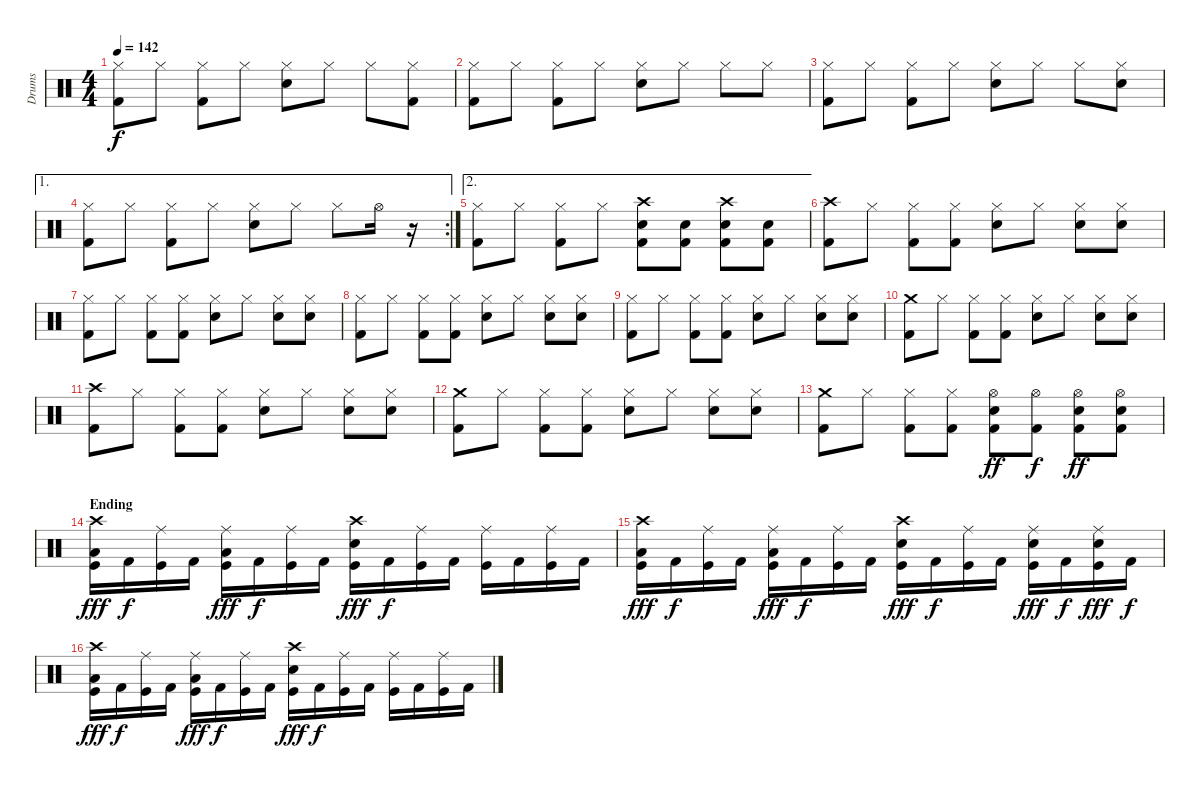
\track ("Drums" "Drums") {instrument percussion}
\staff {score}
\articulation defaults
\ts (4 4)
\tempo 142
\clef neutral
\ks c
("Hi-Hat (closed)" "Kick (hit) 2").8{dy f} "Hi-Hat (closed)".8 ("Hi-Hat (closed)" "Kick (hit) 2").8 "Hi-Hat (closed)".8 ("Hi-Hat (closed)" "Electric Snare (hit)").8 "Hi-Hat (closed)".8 "Hi-Hat (closed)".8 ("Hi-Hat (closed)" "Kick (hit) 2").8 |
("Hi-Hat (closed)" "Kick (hit) 2").8 "Hi-Hat (closed)".8 ("Hi-Hat (closed)" "Kick (hit) 2").8 "Hi-Hat (closed)".8 ("Hi-Hat (closed)" "Electric Snare (hit)").8 "Hi-Hat (closed)".8 "Hi-Hat (closed)".8 "Hi-Hat (closed)".8 |
("Hi-Hat (closed)" "Kick (hit) 2").8 "Hi-Hat (closed)".8 ("Hi-Hat (closed)" "Kick (hit) 2").8 "Hi-Hat (closed)".8 ("Hi-Hat (closed)" "Electric Snare (hit)").8 "Hi-Hat (closed)".8 "Hi-Hat (closed)".8 ("Hi-Hat (closed)" "Electric Snare (hit)").8 |
\ae 1
\rc 2
("Hi-Hat (closed)" "Kick (hit) 2").8 "Hi-Hat (closed)".8 ("Hi-Hat (closed)" "Kick (hit) 2").8 "Hi-Hat (closed)".8 ("Hi-Hat (closed)" "Electric Snare (hit)").8 "Hi-Hat (closed)".8 "Hi-Hat (closed)".8 "Hi-Hat (open)".16 r.16 |
\ae 2
("Hi-Hat (closed)" "Kick (hit) 2").8 "Hi-Hat (closed)".8 ("Hi-Hat (closed)" "Kick (hit) 2").8 "Hi-Hat (closed)".8 ("Crash high (hit)" "Electric Snare (hit)" "Kick (hit) 2").8 ("Electric Snare (hit)" "Kick (hit) 2").8 ("Crash high (hit)" "Electric Snare (hit)" "Kick (hit) 2").8 ("Electric Snare (hit)" "Kick (hit) 2").8 |
("Crash high (hit)" "Kick (hit) 2").8 "Hi-Hat (closed)".8 ("Hi-Hat (closed)" "Kick (hit) 2").8 ("Hi-Hat (closed)" "Kick (hit) 2").8 ("Hi-Hat (closed)" "Electric Snare (hit)").8 "Hi-Hat (closed)".8 ("Hi-Hat (closed)" "Electric Snare (hit)").8 ("Hi-Hat (closed)" "Electric Snare (hit)").8 |
("Hi-Hat (closed)" "Kick (hit) 2").8 "Hi-Hat (closed)".8 ("Hi-Hat (closed)" "Kick (hit) 2").8 ("Hi-Hat (closed)" "Kick (hit) 2").8 ("Hi-Hat (closed)" "Electric Snare (hit)").8 "Hi-Hat (closed)".8 ("Hi-Hat (closed)" "Electric Snare (hit)").8 ("Hi-Hat (closed)" "Electric Snare (hit)").8 |
("Hi-Hat (closed)" "Kick (hit) 2").8 "Hi-Hat (closed)".8 ("Hi-Hat (closed)" "Kick (hit) 2").8 ("Hi-Hat (closed)" "Kick (hit) 2").8 ("Hi-Hat (closed)" "Electric Snare (hit)").8 "Hi-Hat (closed)".8 ("Hi-Hat (closed)" "Electric Snare (hit)").8 ("Hi-Hat (closed)" "Electric Snare (hit)").8 |
("Hi-Hat (closed)" "Kick (hit) 2").8 "Hi-Hat (closed)".8 ("Hi-Hat (closed)" "Kick (hit) 2").8 ("Hi-Hat (closed)" "Kick (hit) 2").8 ("Hi-Hat (closed)" "Electric Snare (hit)").8 "Hi-Hat (closed)".8 ("Hi-Hat (closed)" "Electric Snare (hit)").8 ("Hi-Hat (closed)" "Electric Snare (hit)").8 |
("Crash medium (hit)" "Kick (hit) 2").8 "Hi-Hat (closed)".8 ("Hi-Hat (closed)" "Kick (hit) 2").8 ("Hi-Hat (closed)" "Kick (hit) 2").8 ("Hi-Hat (closed)" "Electric Snare (hit)").8 "Hi-Hat (closed)".8 ("Hi-Hat (closed)" "Electric Snare (hit)").8 ("Hi-Hat (closed)" "Electric Snare (hit)").8 |
("Crash high (hit)" "Kick (hit) 2").8 "Hi-Hat (closed)".8 ("Hi-Hat (closed)" "Kick (hit) 2").8 ("Hi-Hat (closed)" "Kick (hit) 2").8 ("Hi-Hat (closed)" "Electric Snare (hit)").8 "Hi-Hat (closed)".8 ("Hi-Hat (closed)" "Electric Snare (hit)").8 ("Hi-Hat (closed)" "Electric Snare (hit)").8 |
("Crash medium (hit)" "Kick (hit) 2").8 "Hi-Hat (closed)".8 ("Hi-Hat (closed)" "Kick (hit) 2").8 ("Hi-Hat (closed)" "Kick (hit) 2").8 ("Hi-Hat (closed)" "Electric Snare (hit)").8 "Hi-Hat (closed)".8 ("Hi-Hat (closed)" "Electric Snare (hit)").8 ("Hi-Hat (closed)" "Electric Snare (hit)").8 |
("Crash medium (hit)" "Kick (hit) 2").8 "Hi-Hat (closed)".8 ("Hi-Hat (closed)" "Kick (hit) 2").8 ("Hi-Hat (closed)" "Kick (hit) 2").8 ("Hi-Hat (open)" "Electric Snare (hit)" "Kick (hit) 2").8{dy ff} ("Hi-Hat (open)" "Kick (hit) 2").8{dy f} ("Hi-Hat (open)" "Electric Snare (hit)" "Kick (hit) 2").8{dy ff} ("Hi-Hat (open)" "Electric Snare (hit)" "Kick (hit) 2").8 |
\section ("" "Ending")
("Crash high (hit)" "Low Floor Tom (hit)" "Kick (hit)").16{dy fff} "Kick (hit) 2".16{dy f} ("Ride (middle)" "Kick (hit)").16 "Kick (hit) 2".16 ("Ride (middle)" "Low Floor Tom (hit)" "Kick (hit)").16{dy fff} "Kick (hit) 2".16{dy f} ("Ride (middle)" "Kick (hit)").16 "Kick (hit) 2".16 ("Crash high (hit)" "Electric Snare (hit)" "Kick (hit)").16{dy fff} "Kick (hit) 2".16{dy f} ("Ride (middle)" "Kick (hit)").16 "Kick (hit) 2".16 ("Ride (middle)" "Kick (hit)").16 "Kick (hit) 2".16 ("Ride (middle)" "Kick (hit)").16 "Kick (hit) 2".16 |
("Crash high (hit)" "Low Floor Tom (hit)" "Kick (hit)").16{dy fff} "Kick (hit) 2".16{dy f} ("Ride (middle)" "Kick (hit)").16 "Kick (hit) 2".16 ("Ride (middle)" "Low Floor Tom (hit)" "Kick (hit)").16{dy fff} "Kick (hit) 2".16{dy f} ("Ride (middle)" "Kick (hit)").16 "Kick (hit) 2".16 ("Crash high (hit)" "Electric Snare (hit)" "Kick (hit)").16{dy fff} "Kick (hit) 2".16{dy f} ("Ride (middle)" "Kick (hit)").16 "Kick (hit) 2".16 ("Ride (middle)" "Electric Snare (hit)" "Kick (hit)").16{dy fff} "Kick (hit) 2".16{dy f} ("Ride (middle)" "Electric Snare (hit)" "Kick (hit)").16{dy fff} "Kick (hit) 2".16{dy f} |
("Crash high (hit)" "Low Floor Tom (hit)" "Kick (hit)").16{dy fff} "Kick (hit) 2".16{dy f} ("Ride (middle)" "Kick (hit)").16 "Kick (hit) 2".16 ("Ride (middle)" "Low Floor Tom (hit)" "Kick (hit)").16{dy fff} "Kick (hit) 2".16{dy f} ("Ride (middle)" "Kick (hit)").16 "Kick (hit) 2".16 ("Crash high (hit)" "Electric Snare (hit)" "Kick (hit)").16{dy fff} "Kick (hit) 2".16{dy f} ("Ride (middle)" "Kick (hit)").16 "Kick (hit) 2".16 ("Ride (middle)" "Kick (hit)").16 "Kick (hit) 2".16 ("Ride (middle)" "Kick (hit)").16 "Kick (hit) 2".16
